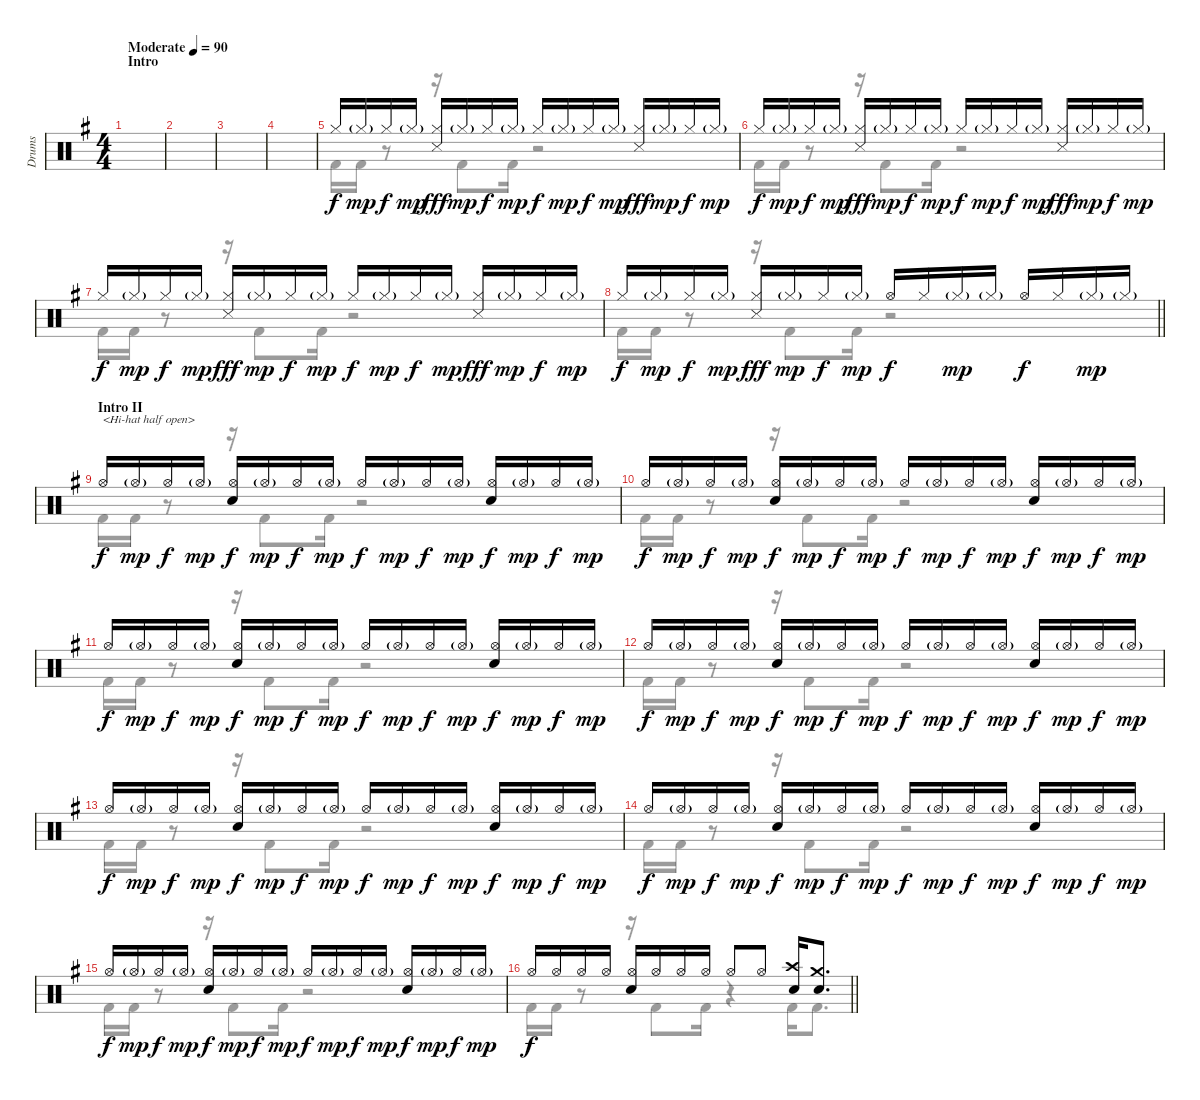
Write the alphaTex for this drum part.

\track ("Drums" "Drums") {instrument percussion}
\staff {score}
\articulation defaults
\voice
\ts (4 4)
\section ("" "Intro")
\tempo (90 "Moderate")
\clef neutral
\ks g
|
|
|
|
"Hi-Hat (closed)".16 "Hi-Hat (closed)"{g}.16{dy mp} "Hi-Hat (closed)".16{dy f} "Hi-Hat (closed)"{g}.16{dy mp} ("Hi-Hat (closed)" "Snare (side stick) 3").16{dy fff} "Hi-Hat (closed)"{g}.16{dy mp} "Hi-Hat (closed)".16{dy f} "Hi-Hat (closed)"{g}.16{dy mp} "Hi-Hat (closed)".16{dy f} "Hi-Hat (closed)"{g}.16{dy mp} "Hi-Hat (closed)".16{dy f} "Hi-Hat (closed)"{g}.16{dy mp} ("Hi-Hat (closed)" "Snare (side stick) 3").16{dy fff} "Hi-Hat (closed)"{g}.16{dy mp} "Hi-Hat (closed)".16{dy f} "Hi-Hat (closed)"{g}.16{dy mp} |
"Hi-Hat (closed)".16{dy f} "Hi-Hat (closed)"{g}.16{dy mp} "Hi-Hat (closed)".16{dy f} "Hi-Hat (closed)"{g}.16{dy mp} ("Hi-Hat (closed)" "Snare (side stick) 3").16{dy fff} "Hi-Hat (closed)"{g}.16{dy mp} "Hi-Hat (closed)".16{dy f} "Hi-Hat (closed)"{g}.16{dy mp} "Hi-Hat (closed)".16{dy f} "Hi-Hat (closed)"{g}.16{dy mp} "Hi-Hat (closed)".16{dy f} "Hi-Hat (closed)"{g}.16{dy mp} ("Hi-Hat (closed)" "Snare (side stick) 3").16{dy fff} "Hi-Hat (closed)"{g}.16{dy mp} "Hi-Hat (closed)".16{dy f} "Hi-Hat (closed)"{g}.16{dy mp} |
"Hi-Hat (closed)".16{dy f} "Hi-Hat (closed)"{g}.16{dy mp} "Hi-Hat (closed)".16{dy f} "Hi-Hat (closed)"{g}.16{dy mp} ("Hi-Hat (closed)" "Snare (side stick) 3").16{dy fff} "Hi-Hat (closed)"{g}.16{dy mp} "Hi-Hat (closed)".16{dy f} "Hi-Hat (closed)"{g}.16{dy mp} "Hi-Hat (closed)".16{dy f} "Hi-Hat (closed)"{g}.16{dy mp} "Hi-Hat (closed)".16{dy f} "Hi-Hat (closed)"{g}.16{dy mp} ("Hi-Hat (closed)" "Snare (side stick) 3").16{dy fff} "Hi-Hat (closed)"{g}.16{dy mp} "Hi-Hat (closed)".16{dy f} "Hi-Hat (closed)"{g}.16{dy mp} |
\barLineRight lightlight "Hi-Hat (closed)".16{dy f} "Hi-Hat (closed)"{g}.16{dy mp} "Hi-Hat (closed)".16{dy f} "Hi-Hat (closed)"{g}.16{dy mp}
("Hi-Hat (closed)" "Snare (side stick) 3").16{dy fff} "Hi-Hat (closed)"{g}.16{dy mp} "Hi-Hat (closed)".16{dy f} "Hi-Hat (closed)"{g}.16{dy mp} "Hi-Hat (open)".16{dy f} "Hi-Hat (closed)".16 "Hi-Hat (closed)"{g}.16{dy mp} "Hi-Hat (closed)"{g}.16 "Hi-Hat (open)".16{dy f} "Hi-Hat (closed)".16 "Hi-Hat (closed)"{g}.16{dy mp} "Hi-Hat (closed)"{g}.16 |
\section ("" "Intro II")
"Hi-Hat (open)".16{txt "<Hi-hat half open>" dy f} "Hi-Hat (open)"{g}.16{dy mp} "Hi-Hat (open)".16{dy f} "Hi-Hat (open)"{g}.16{dy mp} ("Hi-Hat (open)" "Snare (hit) 2").16{dy f} "Hi-Hat (open)"{g}.16{dy mp} "Hi-Hat (open)".16{dy f} "Hi-Hat (open)"{g}.16{dy mp} "Hi-Hat (open)".16{dy f} "Hi-Hat (open)"{g}.16{dy mp} "Hi-Hat (open)".16{dy f} "Hi-Hat (open)"{g}.16{dy mp} ("Hi-Hat (open)" "Snare (hit) 2").16{dy f} "Hi-Hat (open)"{g}.16{dy mp} "Hi-Hat (open)".16{dy f} "Hi-Hat (open)"{g}.16{dy mp} |
"Hi-Hat (open)".16{dy f} "Hi-Hat (open)"{g}.16{dy mp} "Hi-Hat (open)".16{dy f} "Hi-Hat (open)"{g}.16{dy mp} ("Hi-Hat (open)" "Snare (hit) 2").16{dy f} "Hi-Hat (open)"{g}.16{dy mp} "Hi-Hat (open)".16{dy f} "Hi-Hat (open)"{g}.16{dy mp} "Hi-Hat (open)".16{dy f} "Hi-Hat (open)"{g}.16{dy mp} "Hi-Hat (open)".16{dy f} "Hi-Hat (open)"{g}.16{dy mp} ("Hi-Hat (open)" "Snare (hit) 2").16{dy f} "Hi-Hat (open)"{g}.16{dy mp} "Hi-Hat (open)".16{dy f} "Hi-Hat (open)"{g}.16{dy mp} |
"Hi-Hat (open)".16{dy f} "Hi-Hat (open)"{g}.16{dy mp} "Hi-Hat (open)".16{dy f} "Hi-Hat (open)"{g}.16{dy mp} ("Hi-Hat (open)" "Snare (hit) 2").16{dy f} "Hi-Hat (open)"{g}.16{dy mp} "Hi-Hat (open)".16{dy f} "Hi-Hat (open)"{g}.16{dy mp} "Hi-Hat (open)".16{dy f} "Hi-Hat (open)"{g}.16{dy mp} "Hi-Hat (open)".16{dy f} "Hi-Hat (open)"{g}.16{dy mp} ("Hi-Hat (open)" "Snare (hit) 2").16{dy f} "Hi-Hat (open)"{g}.16{dy mp} "Hi-Hat (open)".16{dy f} "Hi-Hat (open)"{g}.16{dy mp} |
"Hi-Hat (open)".16{dy f} "Hi-Hat (open)"{g}.16{dy mp} "Hi-Hat (open)".16{dy f} "Hi-Hat (open)"{g}.16{dy mp} ("Hi-Hat (open)" "Snare (hit) 2").16{dy f} "Hi-Hat (open)"{g}.16{dy mp} "Hi-Hat (open)".16{dy f} "Hi-Hat (open)"{g}.16{dy mp} "Hi-Hat (open)".16{dy f} "Hi-Hat (open)"{g}.16{dy mp} "Hi-Hat (open)".16{dy f} "Hi-Hat (open)"{g}.16{dy mp} ("Hi-Hat (open)" "Snare (hit) 2").16{dy f} "Hi-Hat (open)"{g}.16{dy mp} "Hi-Hat (open)".16{dy f} "Hi-Hat (open)"{g}.16{dy mp} |
"Hi-Hat (open)".16{dy f} "Hi-Hat (open)"{g}.16{dy mp} "Hi-Hat (open)".16{dy f} "Hi-Hat (open)"{g}.16{dy mp} ("Hi-Hat (open)" "Snare (hit) 2").16{dy f} "Hi-Hat (open)"{g}.16{dy mp} "Hi-Hat (open)".16{dy f} "Hi-Hat (open)"{g}.16{dy mp} "Hi-Hat (open)".16{dy f} "Hi-Hat (open)"{g}.16{dy mp} "Hi-Hat (open)".16{dy f} "Hi-Hat (open)"{g}.16{dy mp} ("Hi-Hat (open)" "Snare (hit) 2").16{dy f} "Hi-Hat (open)"{g}.16{dy mp} "Hi-Hat (open)".16{dy f} "Hi-Hat (open)"{g}.16{dy mp} |
"Hi-Hat (open)".16{dy f} "Hi-Hat (open)"{g}.16{dy mp} "Hi-Hat (open)".16{dy f} "Hi-Hat (open)"{g}.16{dy mp} ("Hi-Hat (open)" "Snare (hit) 2").16{dy f} "Hi-Hat (open)"{g}.16{dy mp} "Hi-Hat (open)".16{dy f} "Hi-Hat (open)"{g}.16{dy mp} "Hi-Hat (open)".16{dy f} "Hi-Hat (open)"{g}.16{dy mp} "Hi-Hat (open)".16{dy f} "Hi-Hat (open)"{g}.16{dy mp} ("Hi-Hat (open)" "Snare (hit) 2").16{dy f} "Hi-Hat (open)"{g}.16{dy mp} "Hi-Hat (open)".16{dy f} "Hi-Hat (open)"{g}.16{dy mp} |
"Hi-Hat (open)".16{dy f} "Hi-Hat (open)"{g}.16{dy mp} "Hi-Hat (open)".16{dy f} "Hi-Hat (open)"{g}.16{dy mp} ("Hi-Hat (open)" "Snare (hit) 2").16{dy f} "Hi-Hat (open)"{g}.16{dy mp} "Hi-Hat (open)".16{dy f} "Hi-Hat (open)"{g}.16{dy mp} "Hi-Hat (open)".16{dy f} "Hi-Hat (open)"{g}.16{dy mp} "Hi-Hat (open)".16{dy f} "Hi-Hat (open)"{g}.16{dy mp} ("Hi-Hat (open)" "Snare (hit) 2").16{dy f} "Hi-Hat (open)"{g}.16{dy mp} "Hi-Hat (open)".16{dy f} "Hi-Hat (open)"{g}.16{dy mp} |
\barLineRight lightlight "Hi-Hat (open)".16{dy f} "Hi-Hat (open)".16 "Hi-Hat (open)".16 "Hi-Hat (open)".16
("Hi-Hat (open)" "Snare (hit) 2").16 "Hi-Hat (open)".16 "Hi-Hat (open)".16 "Hi-Hat (open)".16 "Hi-Hat (open)".8 "Hi-Hat (open)".8 ("Crash high (hit)" "Snare (hit) 2").16 ("Crash medium (hit)" "Snare (hit) 2").8{d}
\voice
\clef neutral
\ottava regular
\simile none
\ks g
|
|
|
|
"Kick (hit) 2".16 "Kick (hit) 2".16 r.8 r.16 "Kick (hit) 2".8 "Kick (hit) 2".16 r.2 |
"Kick (hit) 2".16 "Kick (hit) 2".16 r.8 r.16 "Kick (hit) 2".8 "Kick (hit) 2".16 r.2 |
"Kick (hit) 2".16 "Kick (hit) 2".16 r.8 r.16 "Kick (hit) 2".8 "Kick (hit) 2".16 r.2 |
\barLineRight lightlight "Kick (hit) 2".16 "Kick (hit) 2".16
r.8 r.16 "Kick (hit) 2".8 "Kick (hit) 2".16 r.2 |
"Kick (hit) 2".16 "Kick (hit) 2".16 r.8 r.16 "Kick (hit) 2".8 "Kick (hit) 2".16 r.2 |
"Kick (hit) 2".16 "Kick (hit) 2".16 r.8 r.16 "Kick (hit) 2".8 "Kick (hit) 2".16 r.2 |
"Kick (hit) 2".16 "Kick (hit) 2".16 r.8 r.16 "Kick (hit) 2".8 "Kick (hit) 2".16 r.2 |
"Kick (hit) 2".16 "Kick (hit) 2".16 r.8 r.16 "Kick (hit) 2".8 "Kick (hit) 2".16 r.2 |
"Kick (hit) 2".16 "Kick (hit) 2".16 r.8 r.16 "Kick (hit) 2".8 "Kick (hit) 2".16 r.2 |
"Kick (hit) 2".16 "Kick (hit) 2".16 r.8 r.16 "Kick (hit) 2".8 "Kick (hit) 2".16 r.2 |
"Kick (hit) 2".16 "Kick (hit) 2".16 r.8 r.16 "Kick (hit) 2".8 "Kick (hit) 2".16 r.2 |
\barLineRight lightlight "Kick (hit) 2".16 "Kick (hit) 2".16
r.8 r.16 "Kick (hit) 2".8 "Kick (hit) 2".16 r.4 "Kick (hit) 2".16 "Kick (hit) 2".8{d}
